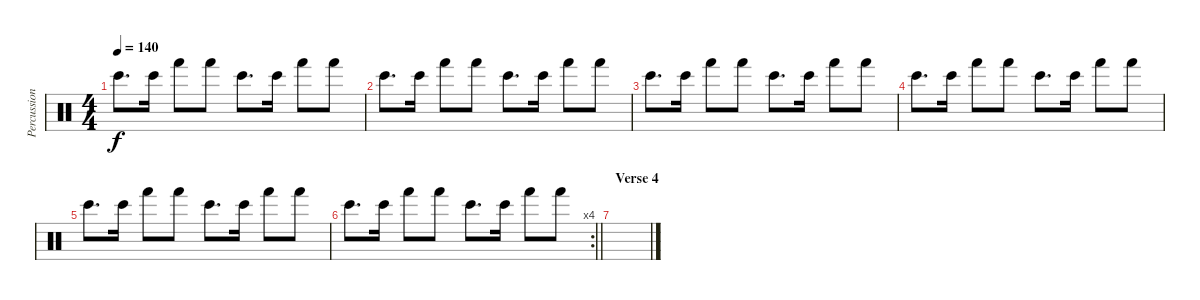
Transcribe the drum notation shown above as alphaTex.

\track ("Percussion" "Percussion") {instrument percussion}
\staff {score}
\articulation defaults
\ts (4 4)
\tempo 140
\clef neutral
\ks c "Bongo High (hit)".8{d dy f} "Bongo High (hit)".16 "Hand (hit)".8 "Hand (hit)".8 "Bongo High (hit)".8{d} "Bongo High (hit)".16 "Hand (hit)".8 "Hand (hit)".8
|
"Bongo High (hit)".8{d} "Bongo High (hit)".16 "Hand (hit)".8 "Hand (hit)".8 "Bongo High (hit)".8{d} "Bongo High (hit)".16 "Hand (hit)".8 "Hand (hit)".8 |
"Bongo High (hit)".8{d} "Bongo High (hit)".16 "Hand (hit)".8 "Hand (hit)".8 "Bongo High (hit)".8{d} "Bongo High (hit)".16 "Hand (hit)".8 "Hand (hit)".8 |
"Bongo High (hit)".8{d} "Bongo High (hit)".16 "Hand (hit)".8 "Hand (hit)".8 "Bongo High (hit)".8{d} "Bongo High (hit)".16 "Hand (hit)".8 "Hand (hit)".8 |
"Bongo High (hit)".8{d} "Bongo High (hit)".16 "Hand (hit)".8 "Hand (hit)".8 "Bongo High (hit)".8{d} "Bongo High (hit)".16 "Hand (hit)".8 "Hand (hit)".8 |
\rc 4
\barLineRight lightlight "Bongo High (hit)".8{d} "Bongo High (hit)".16 "Hand (hit)".8 "Hand (hit)".8 "Bongo High (hit)".8{d} "Bongo High (hit)".16 "Hand (hit)".8 "Hand (hit)".8
|
\section ("" "Verse 4")
